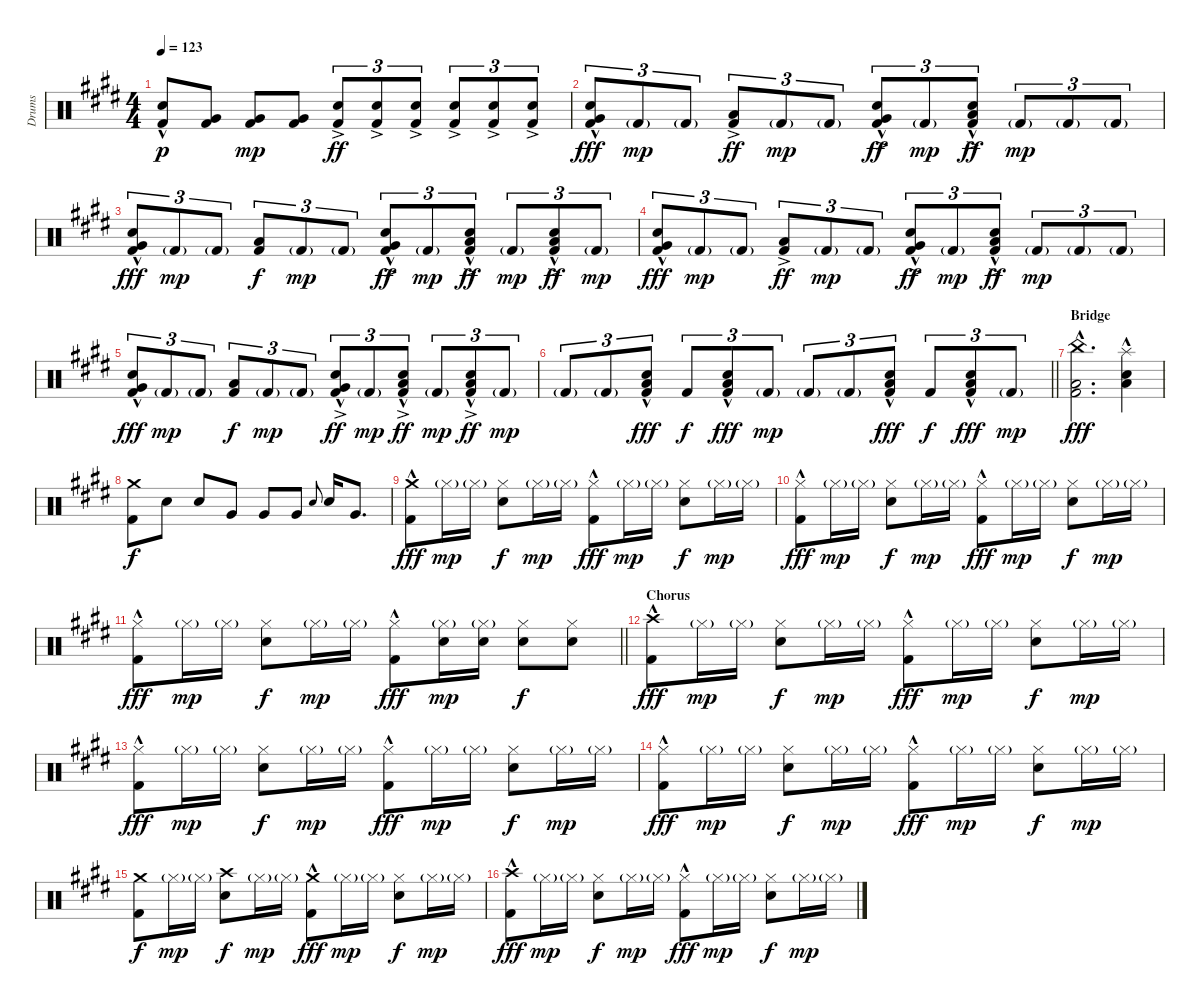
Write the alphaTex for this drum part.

\track ("Drums" "Drums") {instrument percussion}
\staff {score}
\articulation defaults
\ts (4 4)
\tempo 123
\clef neutral
\ks c#minor
("Snare (hit) 2"{hac} "Kick (hit) 2").8{dy p} ("Very Low Tom (hit)" "Kick (hit) 2").8 ("Very Low Tom (hit)" "Kick (hit) 2").8{dy mp} ("Very Low Tom (hit)" "Kick (hit) 2").8 ("Snare (hit) 2"{ac} "Kick (hit) 2").8{tu (3 2) dy ff} ("Snare (hit) 2"{ac} "Kick (hit) 2").8{tu (3 2)} ("Snare (hit) 2"{ac} "Kick (hit) 2").8{tu (3 2)} ("Snare (hit) 2"{ac} "Kick (hit) 2").8{tu (3 2)} ("Snare (hit) 2"{ac} "Kick (hit) 2").8{tu (3 2)} ("Snare (hit) 2"{ac} "Kick (hit) 2").8{tu (3 2)} |
("Very Low Tom (hit)"{hac} "Snare (hit) 2"{hac} "Kick (hit) 2"{hac}).8{tu (3 2) dy fff} "Kick (hit) 2"{g}.8{tu (3 2) dy mp} "Kick (hit) 2"{g}.8{tu (3 2)} ("Low Floor Tom (hit)"{ac} "Kick (hit) 2").8{tu (3 2) dy ff} "Kick (hit) 2"{g}.8{tu (3 2) dy mp} "Kick (hit) 2"{g}.8{tu (3 2)} ("Snare (hit) 2" "Very Low Tom (hit)"{hac} "Kick (hit) 2"{ac}).8{tu (3 2) dy ff} "Kick (hit) 2"{g}.8{tu (3 2) dy mp} ("Snare (hit) 2" "Low Floor Tom (hit)"{hac} "Kick (hit) 2"{ac}).8{tu (3 2) dy ff} "Kick (hit) 2"{g}.8{tu (3 2) dy mp} "Kick (hit) 2"{g}.8{tu (3 2)} "Kick (hit) 2"{g}.8{tu (3 2)} |
("Very Low Tom (hit)"{hac} "Snare (hit) 2"{hac} "Kick (hit) 2"{hac}).8{tu (3 2) dy fff} "Kick (hit) 2"{g}.8{tu (3 2) dy mp} "Kick (hit) 2"{g}.8{tu (3 2)} ("Low Floor Tom (hit)" "Kick (hit) 2").8{tu (3 2) dy f} "Kick (hit) 2"{g}.8{tu (3 2) dy mp} "Kick (hit) 2"{g}.8{tu (3 2)} ("Snare (hit) 2" "Very Low Tom (hit)"{hac} "Kick (hit) 2"{ac}).8{tu (3 2) dy ff} "Kick (hit) 2"{g}.8{tu (3 2) dy mp} ("Snare (hit) 2" "Low Floor Tom (hit)"{hac} "Kick (hit) 2"{ac}).8{tu (3 2) dy ff} "Kick (hit) 2"{g}.8{tu (3 2) dy mp} ("Snare (hit) 2"{hac} "Low Floor Tom (hit)"{hac} "Kick (hit) 2"{ac}).8{tu (3 2) dy ff} "Kick (hit) 2"{g}.8{tu (3 2) dy mp} |
("Very Low Tom (hit)"{hac} "Snare (hit) 2"{hac} "Kick (hit) 2"{hac}).8{tu (3 2) dy fff} "Kick (hit) 2"{g}.8{tu (3 2) dy mp} "Kick (hit) 2"{g}.8{tu (3 2)} ("Low Floor Tom (hit)"{ac} "Kick (hit) 2").8{tu (3 2) dy ff} "Kick (hit) 2"{g}.8{tu (3 2) dy mp} "Kick (hit) 2"{g}.8{tu (3 2)} ("Snare (hit) 2" "Very Low Tom (hit)"{hac} "Kick (hit) 2"{ac}).8{tu (3 2) dy ff} "Kick (hit) 2"{g}.8{tu (3 2) dy mp} ("Snare (hit) 2" "Low Floor Tom (hit)"{hac} "Kick (hit) 2"{ac}).8{tu (3 2) dy ff} "Kick (hit) 2"{g}.8{tu (3 2) dy mp} "Kick (hit) 2"{g}.8{tu (3 2)} "Kick (hit) 2"{g}.8{tu (3 2)} |
("Very Low Tom (hit)"{hac} "Snare (hit) 2"{hac} "Kick (hit) 2"{hac}).8{tu (3 2) dy fff} "Kick (hit) 2"{g}.8{tu (3 2) dy mp} "Kick (hit) 2"{g}.8{tu (3 2)} ("Low Floor Tom (hit)" "Kick (hit) 2").8{tu (3 2) dy f} "Kick (hit) 2"{g}.8{tu (3 2) dy mp} "Kick (hit) 2"{g}.8{tu (3 2)} ("Snare (hit) 2" "Very Low Tom (hit)"{hac} "Kick (hit) 2"{ac}).8{tu (3 2) dy ff} "Kick (hit) 2"{g}.8{tu (3 2) dy mp} ("Snare (hit) 2" "Low Floor Tom (hit)"{hac} "Kick (hit) 2"{ac}).8{tu (3 2) dy ff} "Kick (hit) 2"{g}.8{tu (3 2) dy mp} ("Snare (hit) 2"{hac} "Low Floor Tom (hit)"{hac} "Kick (hit) 2"{ac}).8{tu (3 2) dy ff} "Kick (hit) 2"{g}.8{tu (3 2) dy mp} |
\barLineRight lightlight "Kick (hit) 2"{g}.8{tu (3 2)} "Kick (hit) 2"{g}.8{tu (3 2)}
("Snare (hit) 2"{hac} "Low Floor Tom (hit)"{hac} "Kick (hit) 2").8{tu (3 2) dy fff} "Kick (hit) 2".8{tu (3 2) dy f} ("Snare (hit) 2"{hac} "Low Floor Tom (hit)"{hac} "Kick (hit) 2").8{tu (3 2) dy fff} "Kick (hit) 2"{g}.8{tu (3 2) dy mp} "Kick (hit) 2"{g}.8{tu (3 2)} "Kick (hit) 2"{g}.8{tu (3 2)} ("Snare (hit) 2"{hac} "Low Floor Tom (hit)"{hac} "Kick (hit) 2").8{tu (3 2) dy fff} "Kick (hit) 2".8{tu (3 2) dy f} ("Snare (hit) 2"{hac} "Low Floor Tom (hit)"{hac} "Kick (hit) 2").8{tu (3 2) dy fff} "Kick (hit) 2"{g}.8{tu (3 2) dy mp} |
\section ("" "Bridge")
("China (hit)" "Low Floor Tom (hit)"{hac} "Kick (hit) 2"{hac}).2{d dy fff} ("Splash (hit)" "Low Floor Tom (hit)"{hac} "Snare (hit) 2"{hac}).4 |
("Crash medium (hit)" "Kick (hit) 2").8{dy f} "Snare (hit) 2".8 "Snare (hit) 2".8 "Very Low Tom (hit)".8 "Very Low Tom (hit)".8 "Very Low Tom (hit)".8 "Snare (hit) 2".8{gr onbeat} "Snare (hit) 2".16 "Very Low Tom (hit)".8{d} |
("Crash medium (hit)" "Kick (hit) 2"{hac}).8{dy fff} "Hi-Hat (closed)"{g}.16{dy mp} "Hi-Hat (closed)"{g}.16 ("Hi-Hat (closed)" "Snare (hit) 2").8{dy f} "Hi-Hat (closed)"{g}.16{dy mp} "Hi-Hat (closed)"{g}.16 ("Hi-Hat (closed)"{hac} "Kick (hit) 2"{hac}).8{dy fff} "Hi-Hat (closed)"{g}.16{dy mp} "Hi-Hat (closed)"{g}.16 ("Hi-Hat (closed)" "Snare (hit) 2").8{dy f} "Hi-Hat (closed)"{g}.16{dy mp} "Hi-Hat (closed)"{g}.16 |
("Hi-Hat (closed)" "Kick (hit) 2"{hac}).8{dy fff} "Hi-Hat (closed)"{g}.16{dy mp} "Hi-Hat (closed)"{g}.16 ("Hi-Hat (closed)" "Snare (hit) 2").8{dy f} "Hi-Hat (closed)"{g}.16{dy mp} "Hi-Hat (closed)"{g}.16 ("Hi-Hat (closed)"{hac} "Kick (hit) 2"{hac}).8{dy fff} "Hi-Hat (closed)"{g}.16{dy mp} "Hi-Hat (closed)"{g}.16 ("Hi-Hat (closed)" "Snare (hit) 2").8{dy f} "Hi-Hat (closed)"{g}.16{dy mp} "Hi-Hat (closed)"{g}.16 |
\barLineRight lightlight
("Hi-Hat (closed)" "Kick (hit) 2"{hac}).8{dy fff} "Hi-Hat (closed)"{g}.16{dy mp} "Hi-Hat (closed)"{g}.16 ("Hi-Hat (closed)" "Snare (hit) 2").8{dy f} "Hi-Hat (closed)"{g}.16{dy mp} "Hi-Hat (closed)"{g}.16 ("Hi-Hat (closed)"{hac} "Kick (hit) 2"{hac}).8{dy fff} ("Hi-Hat (closed)"{g} "Snare (hit) 2").16{dy mp} ("Hi-Hat (closed)"{g} "Snare (hit) 2").16 ("Hi-Hat (closed)" "Snare (hit) 2").8{dy f} ("Hi-Hat (closed)" "Snare (hit) 2").8 |
\section ("" "Chorus")
("Crash high (hit)" "Kick (hit) 2"{hac}).8{dy fff} "Hi-Hat (closed)"{g}.16{dy mp} "Hi-Hat (closed)"{g}.16 ("Hi-Hat (closed)" "Snare (hit) 2").8{dy f} "Hi-Hat (closed)"{g}.16{dy mp} "Hi-Hat (closed)"{g}.16 ("Hi-Hat (closed)"{hac} "Kick (hit) 2"{hac}).8{dy fff} "Hi-Hat (closed)"{g}.16{dy mp} "Hi-Hat (closed)"{g}.16 ("Hi-Hat (closed)" "Snare (hit) 2").8{dy f} "Hi-Hat (closed)"{g}.16{dy mp} "Hi-Hat (closed)"{g}.16 |
("Hi-Hat (closed)"{hac} "Kick (hit) 2").8{dy fff} "Hi-Hat (closed)"{g}.16{dy mp} "Hi-Hat (closed)"{g}.16 ("Hi-Hat (closed)" "Snare (hit) 2").8{dy f} "Hi-Hat (closed)"{g}.16{dy mp} "Hi-Hat (closed)"{g}.16 ("Hi-Hat (closed)"{hac} "Kick (hit) 2"{hac}).8{dy fff} "Hi-Hat (closed)"{g}.16{dy mp} "Hi-Hat (closed)"{g}.16 ("Hi-Hat (closed)" "Snare (hit) 2").8{dy f} "Hi-Hat (closed)"{g}.16{dy mp} "Hi-Hat (closed)"{g}.16 |
("Hi-Hat (closed)"{hac} "Kick (hit) 2").8{dy fff} "Hi-Hat (closed)"{g}.16{dy mp} "Hi-Hat (closed)"{g}.16 ("Hi-Hat (closed)" "Snare (hit) 2").8{dy f} "Hi-Hat (closed)"{g}.16{dy mp} "Hi-Hat (closed)"{g}.16 ("Hi-Hat (closed)"{hac} "Kick (hit) 2"{hac}).8{dy fff} "Hi-Hat (closed)"{g}.16{dy mp} "Hi-Hat (closed)"{g}.16 ("Hi-Hat (closed)" "Snare (hit) 2").8{dy f} "Hi-Hat (closed)"{g}.16{dy mp} "Hi-Hat (closed)"{g}.16 |
("Crash medium (hit)" "Kick (hit) 2").8{dy f} "Hi-Hat (closed)"{g}.16{dy mp} "Hi-Hat (closed)"{g}.16 ("Crash high (hit)" "Snare (hit) 2").8{dy f} "Hi-Hat (closed)"{g}.16{dy mp} "Hi-Hat (closed)"{g}.16 ("Crash medium (hit)" "Kick (hit) 2"{hac}).8{dy fff} "Hi-Hat (closed)"{g}.16{dy mp} "Hi-Hat (closed)"{g}.16 ("Hi-Hat (closed)" "Snare (hit) 2").8{dy f} "Hi-Hat (closed)"{g}.16{dy mp} "Hi-Hat (closed)"{g}.16 |
("Crash high (hit)" "Kick (hit) 2"{hac}).8{dy fff} "Hi-Hat (closed)"{g}.16{dy mp} "Hi-Hat (closed)"{g}.16 ("Hi-Hat (closed)" "Snare (hit) 2").8{dy f} "Hi-Hat (closed)"{g}.16{dy mp} "Hi-Hat (closed)"{g}.16 ("Hi-Hat (closed)"{hac} "Kick (hit) 2"{hac}).8{dy fff} "Hi-Hat (closed)"{g}.16{dy mp} "Hi-Hat (closed)"{g}.16 ("Hi-Hat (closed)" "Snare (hit) 2").8{dy f} "Hi-Hat (closed)"{g}.16{dy mp} "Hi-Hat (closed)"{g}.16
